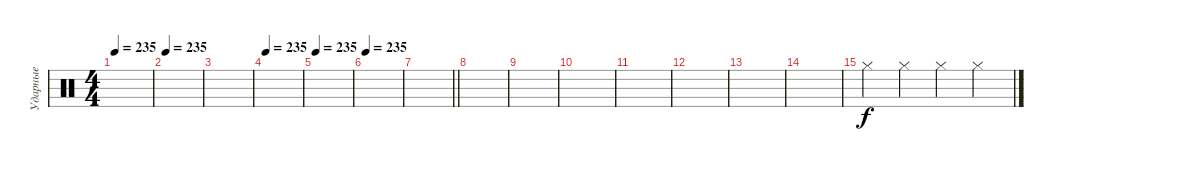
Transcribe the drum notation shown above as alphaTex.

\track ("Ударные" "Ударные") {instrument percussion}
\staff {score}
\articulation defaults
\ts (4 4)
\tempo 235
\clef neutral
\ks c
|
\tempo 235
|
|
\tempo 235
|
\tempo 235
|
\tempo 235
|
\barLineRight lightlight
|
|
|
|
|
|
|
|
"Hi-Hat (closed)".4 "Hi-Hat (closed)".4 "Hi-Hat (closed)".4 "Hi-Hat (closed)".4
